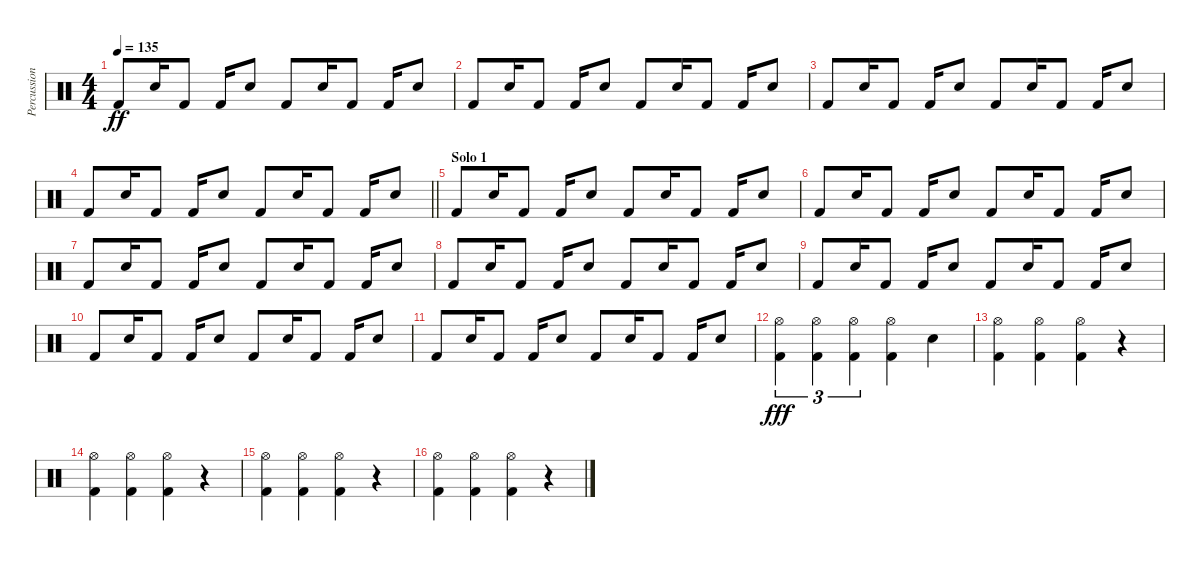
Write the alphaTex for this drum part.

\track ("Percussion" "Percussion") {instrument percussion}
\staff {score}
\articulation defaults
\ts (4 4)
\tempo 135
\clef neutral
\ks c "Kick (hit) 2".8{dy ff} "Electric Snare (hit)".16 "Kick (hit) 2".8 "Kick (hit) 2".16 "Electric Snare (hit)".8 "Kick (hit) 2".8 "Electric Snare (hit)".16 "Kick (hit) 2".8 "Kick (hit) 2".16 "Electric Snare (hit)".8
|
"Kick (hit) 2".8 "Electric Snare (hit)".16 "Kick (hit) 2".8 "Kick (hit) 2".16 "Electric Snare (hit)".8 "Kick (hit) 2".8 "Electric Snare (hit)".16 "Kick (hit) 2".8 "Kick (hit) 2".16 "Electric Snare (hit)".8 |
"Kick (hit) 2".8 "Electric Snare (hit)".16 "Kick (hit) 2".8 "Kick (hit) 2".16 "Electric Snare (hit)".8 "Kick (hit) 2".8 "Electric Snare (hit)".16 "Kick (hit) 2".8 "Kick (hit) 2".16 "Electric Snare (hit)".8 |
\barLineRight lightlight "Kick (hit) 2".8 "Electric Snare (hit)".16 "Kick (hit) 2".8 "Kick (hit) 2".16 "Electric Snare (hit)".8 "Kick (hit) 2".8 "Electric Snare (hit)".16 "Kick (hit) 2".8 "Kick (hit) 2".16 "Electric Snare (hit)".8
|
\section ("" "Solo 1")
"Kick (hit) 2".8 "Electric Snare (hit)".16 "Kick (hit) 2".8 "Kick (hit) 2".16 "Electric Snare (hit)".8 "Kick (hit) 2".8 "Electric Snare (hit)".16 "Kick (hit) 2".8 "Kick (hit) 2".16 "Electric Snare (hit)".8 |
"Kick (hit) 2".8 "Electric Snare (hit)".16 "Kick (hit) 2".8 "Kick (hit) 2".16 "Electric Snare (hit)".8 "Kick (hit) 2".8 "Electric Snare (hit)".16 "Kick (hit) 2".8 "Kick (hit) 2".16 "Electric Snare (hit)".8 |
"Kick (hit) 2".8 "Electric Snare (hit)".16 "Kick (hit) 2".8 "Kick (hit) 2".16 "Electric Snare (hit)".8 "Kick (hit) 2".8 "Electric Snare (hit)".16 "Kick (hit) 2".8 "Kick (hit) 2".16 "Electric Snare (hit)".8 |
"Kick (hit) 2".8 "Electric Snare (hit)".16 "Kick (hit) 2".8 "Kick (hit) 2".16 "Electric Snare (hit)".8 "Kick (hit) 2".8 "Electric Snare (hit)".16 "Kick (hit) 2".8 "Kick (hit) 2".16 "Electric Snare (hit)".8 |
"Kick (hit) 2".8 "Electric Snare (hit)".16 "Kick (hit) 2".8 "Kick (hit) 2".16 "Electric Snare (hit)".8 "Kick (hit) 2".8 "Electric Snare (hit)".16 "Kick (hit) 2".8 "Kick (hit) 2".16 "Electric Snare (hit)".8 |
"Kick (hit) 2".8 "Electric Snare (hit)".16 "Kick (hit) 2".8 "Kick (hit) 2".16 "Electric Snare (hit)".8 "Kick (hit) 2".8 "Electric Snare (hit)".16 "Kick (hit) 2".8 "Kick (hit) 2".16 "Electric Snare (hit)".8 |
"Kick (hit) 2".8 "Electric Snare (hit)".16 "Kick (hit) 2".8 "Kick (hit) 2".16 "Electric Snare (hit)".8 "Kick (hit) 2".8 "Electric Snare (hit)".16 "Kick (hit) 2".8 "Kick (hit) 2".16 "Electric Snare (hit)".8 |
("Hi-Hat (open)" "Kick (hit) 2").4{tu (3 2) dy fff} ("Hi-Hat (open)" "Kick (hit) 2").4{tu (3 2)} ("Hi-Hat (open)" "Kick (hit) 2").4{tu (3 2)} ("Hi-Hat (open)" "Kick (hit) 2").4 "Electric Snare (hit)".4 |
("Hi-Hat (open)" "Kick (hit) 2").4 ("Hi-Hat (open)" "Kick (hit) 2").4 ("Hi-Hat (open)" "Kick (hit) 2").4 r.4 |
("Hi-Hat (open)" "Kick (hit) 2").4 ("Hi-Hat (open)" "Kick (hit) 2").4 ("Hi-Hat (open)" "Kick (hit) 2").4 r.4 |
("Hi-Hat (open)" "Kick (hit) 2").4 ("Hi-Hat (open)" "Kick (hit) 2").4 ("Hi-Hat (open)" "Kick (hit) 2").4 r.4 |
("Hi-Hat (open)" "Kick (hit) 2").4 ("Hi-Hat (open)" "Kick (hit) 2").4 ("Hi-Hat (open)" "Kick (hit) 2").4 r.4
